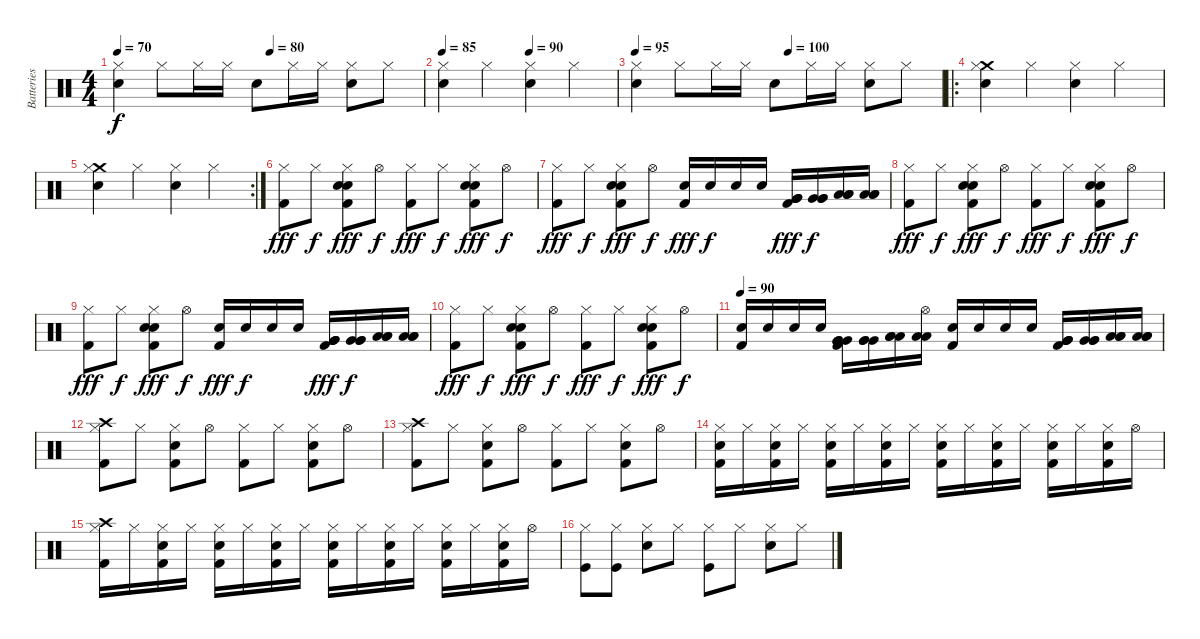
\track ("Batteries" "Batteries") {instrument percussion}
\staff {score}
\articulation defaults
\ts (4 4)
\tempo 70
\tempo (80 0.5)
\clef neutral
\ks c
("Snare (hit) 2" "Hi-Hat (closed)").4{dy f} "Hi-Hat (closed)".8 "Hi-Hat (closed)".16 "Hi-Hat (closed)".16 "Snare (hit) 2".8 "Hi-Hat (closed)".16 "Hi-Hat (closed)".16 ("Snare (hit) 2" "Hi-Hat (closed)").8 "Hi-Hat (closed)".8 |
\tempo 85
\tempo (90 0.5)
("Snare (hit) 2" "Hi-Hat (closed)").4 "Hi-Hat (closed)".4 ("Snare (hit) 2" "Hi-Hat (closed)").4 "Hi-Hat (closed)".4 |
\tempo 95
\tempo (100 0.5)
("Snare (hit) 2" "Hi-Hat (closed)").4 "Hi-Hat (closed)".8 "Hi-Hat (closed)".16 "Hi-Hat (closed)".16 "Snare (hit) 2".8 "Hi-Hat (closed)".16 "Hi-Hat (closed)".16 ("Snare (hit) 2" "Hi-Hat (closed)").8 "Hi-Hat (closed)".8 |
\ro
("Crash medium (hit)" "Hi-Hat (closed)" "Snare (hit) 2").4 "Hi-Hat (closed)".4 ("Snare (hit) 2" "Hi-Hat (closed)").4 "Hi-Hat (closed)".4 |
\rc 2
("Crash medium (hit)" "Hi-Hat (closed)" "Snare (hit) 2").4 "Hi-Hat (closed)".4 ("Snare (hit) 2" "Hi-Hat (closed)").4 "Hi-Hat (closed)".4 |
("Hi-Hat (closed)" "Kick (hit) 2").8{dy fff} "Hi-Hat (closed)".8{dy f} ("Hi-Hat (closed)" "Electric Snare (hit)" "Snare (hit) 2" "Kick (hit) 2").8{dy fff} "Hi-Hat (open)".8{dy f} ("Hi-Hat (closed)" "Kick (hit) 2").8{dy fff} "Hi-Hat (closed)".8{dy f} ("Hi-Hat (closed)" "Electric Snare (hit)" "Snare (hit) 2" "Kick (hit) 2").8{dy fff} "Hi-Hat (open)".8{dy f} |
("Hi-Hat (closed)" "Kick (hit) 2").8{dy fff} "Hi-Hat (closed)".8{dy f} ("Hi-Hat (closed)" "Electric Snare (hit)" "Snare (hit) 2" "Kick (hit) 2").8{dy fff} "Hi-Hat (open)".8{dy f} ("Snare (hit) 2" "Kick (hit) 2").16{dy fff} "Snare (hit) 2".16{dy f} "Electric Snare (hit)".16 "Electric Snare (hit)".16 ("Very Low Tom (hit)" "Very Low Tom (hit)" "Very Low Tom (hit)" "Kick (hit) 2").16{dy fff} ("Very Low Tom (hit)" "Very Low Tom (hit)" "Very Low Tom (hit)").16{dy f} ("Low Tom (hit)" "Low Tom (hit)" "Low Tom (hit)").16 ("Low Tom (hit)" "Low Tom (hit)" "Low Tom (hit)").16 |
("Hi-Hat (closed)" "Kick (hit) 2").8{dy fff} "Hi-Hat (closed)".8{dy f} ("Hi-Hat (closed)" "Electric Snare (hit)" "Snare (hit) 2" "Kick (hit) 2").8{dy fff} "Hi-Hat (open)".8{dy f} ("Hi-Hat (closed)" "Kick (hit) 2").8{dy fff} "Hi-Hat (closed)".8{dy f} ("Hi-Hat (closed)" "Electric Snare (hit)" "Snare (hit) 2" "Kick (hit) 2").8{dy fff} "Hi-Hat (open)".8{dy f} |
("Hi-Hat (closed)" "Kick (hit) 2").8{dy fff} "Hi-Hat (closed)".8{dy f} ("Hi-Hat (closed)" "Electric Snare (hit)" "Snare (hit) 2" "Kick (hit) 2").8{dy fff} "Hi-Hat (open)".8{dy f} ("Snare (hit) 2" "Kick (hit) 2").16{dy fff} "Snare (hit) 2".16{dy f} "Electric Snare (hit)".16 "Electric Snare (hit)".16 ("Very Low Tom (hit)" "Very Low Tom (hit)" "Very Low Tom (hit)" "Kick (hit) 2").16{dy fff} ("Very Low Tom (hit)" "Very Low Tom (hit)" "Very Low Tom (hit)").16{dy f} ("Low Tom (hit)" "Low Tom (hit)" "Low Tom (hit)").16 ("Low Tom (hit)" "Low Tom (hit)" "Low Tom (hit)").16 |
("Hi-Hat (closed)" "Kick (hit) 2").8{dy fff} "Hi-Hat (closed)".8{dy f} ("Hi-Hat (closed)" "Electric Snare (hit)" "Snare (hit) 2" "Kick (hit) 2").8{dy fff} "Hi-Hat (open)".8{dy f} ("Hi-Hat (closed)" "Kick (hit) 2").8{dy fff} "Hi-Hat (closed)".8{dy f} ("Hi-Hat (closed)" "Electric Snare (hit)" "Snare (hit) 2" "Kick (hit) 2").8{dy fff} "Hi-Hat (open)".8{dy f} |
\tempo 90
("Snare (hit) 2" "Kick (hit) 2").16 "Snare (hit) 2".16 "Electric Snare (hit)".16 "Electric Snare (hit)".16 ("Very Low Tom (hit)" "Very Low Tom (hit)" "Very Low Tom (hit)" "Kick (hit) 2").16 ("Very Low Tom (hit)" "Very Low Tom (hit)" "Very Low Tom (hit)").16 ("Low Tom (hit)" "Low Tom (hit)" "Low Tom (hit)").16 ("Hi-Hat (open)" "Low Tom (hit)" "Low Tom (hit)").16 ("Snare (hit) 2" "Kick (hit) 2").16 "Snare (hit) 2".16 "Electric Snare (hit)".16 "Electric Snare (hit)".16 ("Very Low Tom (hit)" "Very Low Tom (hit)" "Very Low Tom (hit)" "Kick (hit) 2").16 ("Very Low Tom (hit)" "Very Low Tom (hit)" "Very Low Tom (hit)").16 ("Low Tom (hit)" "Low Tom (hit)" "Low Tom (hit)").16 ("Low Tom (hit)" "Low Tom (hit)" "Low Tom (hit)").16 |
("Crash high (hit)" "Hi-Hat (closed)" "Kick (hit) 2").8 "Hi-Hat (closed)".8 ("Hi-Hat (closed)" "Snare (hit) 2" "Kick (hit) 2").8 "Hi-Hat (open)".8 ("Hi-Hat (closed)" "Kick (hit) 2").8 "Hi-Hat (closed)".8 ("Hi-Hat (closed)" "Snare (hit) 2" "Kick (hit) 2").8 "Hi-Hat (open)".8 |
("Crash high (hit)" "Hi-Hat (closed)" "Kick (hit) 2").8 "Hi-Hat (closed)".8 ("Hi-Hat (closed)" "Snare (hit) 2" "Kick (hit) 2").8 "Hi-Hat (open)".8 ("Hi-Hat (closed)" "Kick (hit) 2").8 "Hi-Hat (closed)".8 ("Hi-Hat (closed)" "Snare (hit) 2" "Kick (hit) 2").8 "Hi-Hat (open)".8 |
("Hi-Hat (closed)" "Electric Snare (hit)" "Kick (hit) 2").16 "Hi-Hat (closed)".16 ("Hi-Hat (closed)" "Snare (hit) 2" "Kick (hit) 2").16 "Hi-Hat (closed)".16 ("Hi-Hat (closed)" "Electric Snare (hit)" "Kick (hit) 2").16 "Hi-Hat (closed)".16 ("Hi-Hat (closed)" "Snare (hit) 2" "Kick (hit) 2").16 "Hi-Hat (closed)".16 ("Hi-Hat (closed)" "Electric Snare (hit)" "Kick (hit) 2").16 "Hi-Hat (closed)".16 ("Hi-Hat (closed)" "Snare (hit) 2" "Kick (hit) 2").16 "Hi-Hat (closed)".16 ("Hi-Hat (closed)" "Electric Snare (hit)" "Kick (hit) 2").16 "Hi-Hat (closed)".16 ("Hi-Hat (closed)" "Snare (hit) 2" "Kick (hit) 2").16 "Hi-Hat (open)".16 |
("Hi-Hat (closed)" "Crash high (hit)" "Kick (hit) 2").16 "Hi-Hat (closed)".16 ("Hi-Hat (closed)" "Snare (hit) 2" "Kick (hit) 2").16 "Hi-Hat (closed)".16 ("Hi-Hat (closed)" "Electric Snare (hit)" "Kick (hit) 2").16 "Hi-Hat (closed)".16 ("Hi-Hat (closed)" "Snare (hit) 2" "Kick (hit) 2").16 "Hi-Hat (closed)".16 ("Hi-Hat (closed)" "Electric Snare (hit)" "Kick (hit) 2").16 "Hi-Hat (closed)".16 ("Hi-Hat (closed)" "Snare (hit) 2" "Kick (hit) 2").16 "Hi-Hat (closed)".16 ("Hi-Hat (closed)" "Electric Snare (hit)" "Kick (hit) 2").16 "Hi-Hat (closed)".16 ("Hi-Hat (closed)" "Snare (hit) 2" "Kick (hit) 2").16 "Hi-Hat (open)".16 |
("Hi-Hat (closed)" "Kick (hit)").8 ("Hi-Hat (closed)" "Kick (hit)").8 ("Hi-Hat (closed)" "Snare (hit) 2").8 "Hi-Hat (closed)".8 ("Hi-Hat (closed)" "Kick (hit)").8 "Hi-Hat (closed)".8 ("Hi-Hat (closed)" "Snare (hit) 2").8 "Hi-Hat (closed)".8
